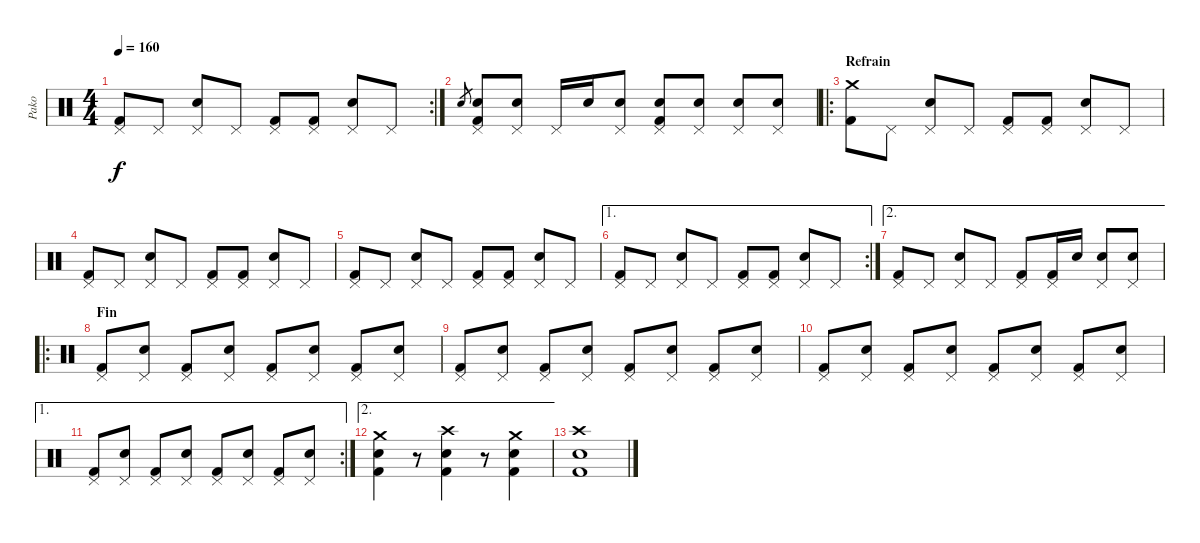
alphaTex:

\track ("Pako" "Pako") {instrument percussion}
\staff {score}
\articulation defaults
\rc 2
\ts (4 4)
\tempo 160
\clef neutral
\ks c
("Pedal Hi-Hat (hit)" "Kick (hit) 2").8{dy f} "Pedal Hi-Hat (hit)".8 ("Pedal Hi-Hat (hit)" "Snare (hit) 2").8 "Pedal Hi-Hat (hit)".8 ("Pedal Hi-Hat (hit)" "Kick (hit) 2").8 ("Pedal Hi-Hat (hit)" "Kick (hit) 2").8 ("Pedal Hi-Hat (hit)" "Snare (hit) 2").8 "Pedal Hi-Hat (hit)".8 |
"Snare (hit) 2".8{gr} ("Pedal Hi-Hat (hit)" "Snare (hit) 2" "Kick (hit) 2").8 ("Pedal Hi-Hat (hit)" "Snare (hit) 2").8 "Pedal Hi-Hat (hit)".16 "Snare (hit) 2".16 ("Pedal Hi-Hat (hit)" "Snare (hit) 2").8 ("Pedal Hi-Hat (hit)" "Snare (hit) 2" "Kick (hit) 2").8 ("Pedal Hi-Hat (hit)" "Snare (hit) 2").8 ("Pedal Hi-Hat (hit)" "Snare (hit) 2").8 ("Pedal Hi-Hat (hit)" "Snare (hit) 2").8 |
\ro
\section ("" "Refrain")
("Crash medium (hit)" "Kick (hit) 2").8 "Pedal Hi-Hat (hit)".8 ("Pedal Hi-Hat (hit)" "Snare (hit) 2").8 "Pedal Hi-Hat (hit)".8 ("Pedal Hi-Hat (hit)" "Kick (hit) 2").8 ("Pedal Hi-Hat (hit)" "Kick (hit) 2").8 ("Pedal Hi-Hat (hit)" "Snare (hit) 2").8 "Pedal Hi-Hat (hit)".8 |
("Pedal Hi-Hat (hit)" "Kick (hit) 2").8 "Pedal Hi-Hat (hit)".8 ("Pedal Hi-Hat (hit)" "Snare (hit) 2").8 "Pedal Hi-Hat (hit)".8 ("Pedal Hi-Hat (hit)" "Kick (hit) 2").8 ("Pedal Hi-Hat (hit)" "Kick (hit) 2").8 ("Pedal Hi-Hat (hit)" "Snare (hit) 2").8 "Pedal Hi-Hat (hit)".8 |
("Pedal Hi-Hat (hit)" "Kick (hit) 2").8 "Pedal Hi-Hat (hit)".8 ("Pedal Hi-Hat (hit)" "Snare (hit) 2").8 "Pedal Hi-Hat (hit)".8 ("Pedal Hi-Hat (hit)" "Kick (hit) 2").8 ("Pedal Hi-Hat (hit)" "Kick (hit) 2").8 ("Pedal Hi-Hat (hit)" "Snare (hit) 2").8 "Pedal Hi-Hat (hit)".8 |
\ae 1
\rc 2
("Pedal Hi-Hat (hit)" "Kick (hit) 2").8 "Pedal Hi-Hat (hit)".8 ("Pedal Hi-Hat (hit)" "Snare (hit) 2").8 "Pedal Hi-Hat (hit)".8 ("Pedal Hi-Hat (hit)" "Kick (hit) 2").8 ("Pedal Hi-Hat (hit)" "Kick (hit) 2").8 ("Pedal Hi-Hat (hit)" "Snare (hit) 2").8 "Pedal Hi-Hat (hit)".8 |
\ae 2
("Pedal Hi-Hat (hit)" "Kick (hit) 2").8 "Pedal Hi-Hat (hit)".8 ("Pedal Hi-Hat (hit)" "Snare (hit) 2").8 "Pedal Hi-Hat (hit)".8 ("Pedal Hi-Hat (hit)" "Kick (hit) 2").8 ("Pedal Hi-Hat (hit)" "Kick (hit) 2").16 "Snare (hit) 2".16 ("Pedal Hi-Hat (hit)" "Snare (hit) 2").8 ("Pedal Hi-Hat (hit)" "Snare (hit) 2").8 |
\ro
\section ("" "Fin")
("Pedal Hi-Hat (hit)" "Kick (hit) 2").8 ("Pedal Hi-Hat (hit)" "Snare (hit) 2").8 ("Pedal Hi-Hat (hit)" "Kick (hit) 2").8 ("Pedal Hi-Hat (hit)" "Snare (hit) 2").8 ("Pedal Hi-Hat (hit)" "Kick (hit) 2").8 ("Pedal Hi-Hat (hit)" "Snare (hit) 2").8 ("Pedal Hi-Hat (hit)" "Kick (hit) 2").8 ("Pedal Hi-Hat (hit)" "Snare (hit) 2").8 |
("Pedal Hi-Hat (hit)" "Kick (hit) 2").8 ("Pedal Hi-Hat (hit)" "Snare (hit) 2").8 ("Pedal Hi-Hat (hit)" "Kick (hit) 2").8 ("Pedal Hi-Hat (hit)" "Snare (hit) 2").8 ("Pedal Hi-Hat (hit)" "Kick (hit) 2").8 ("Pedal Hi-Hat (hit)" "Snare (hit) 2").8 ("Pedal Hi-Hat (hit)" "Kick (hit) 2").8 ("Pedal Hi-Hat (hit)" "Snare (hit) 2").8 |
("Pedal Hi-Hat (hit)" "Kick (hit) 2").8 ("Pedal Hi-Hat (hit)" "Snare (hit) 2").8 ("Pedal Hi-Hat (hit)" "Kick (hit) 2").8 ("Pedal Hi-Hat (hit)" "Snare (hit) 2").8 ("Pedal Hi-Hat (hit)" "Kick (hit) 2").8 ("Pedal Hi-Hat (hit)" "Snare (hit) 2").8 ("Pedal Hi-Hat (hit)" "Kick (hit) 2").8 ("Pedal Hi-Hat (hit)" "Snare (hit) 2").8 |
\ae 1
\rc 2
("Pedal Hi-Hat (hit)" "Kick (hit) 2").8 ("Pedal Hi-Hat (hit)" "Snare (hit) 2").8 ("Pedal Hi-Hat (hit)" "Kick (hit) 2").8 ("Pedal Hi-Hat (hit)" "Snare (hit) 2").8 ("Pedal Hi-Hat (hit)" "Kick (hit) 2").8 ("Pedal Hi-Hat (hit)" "Snare (hit) 2").8 ("Pedal Hi-Hat (hit)" "Kick (hit) 2").8 ("Pedal Hi-Hat (hit)" "Snare (hit) 2").8 |
\ae 2
("Crash medium (hit)" "Snare (hit) 2" "Kick (hit) 2").4 r.8 ("Crash high (hit)" "Snare (hit) 2" "Kick (hit) 2").4 r.8 ("Crash medium (hit)" "Snare (hit) 2" "Kick (hit) 2").4 |
("Crash high (hit)" "Snare (hit) 2" "Kick (hit) 2").1
